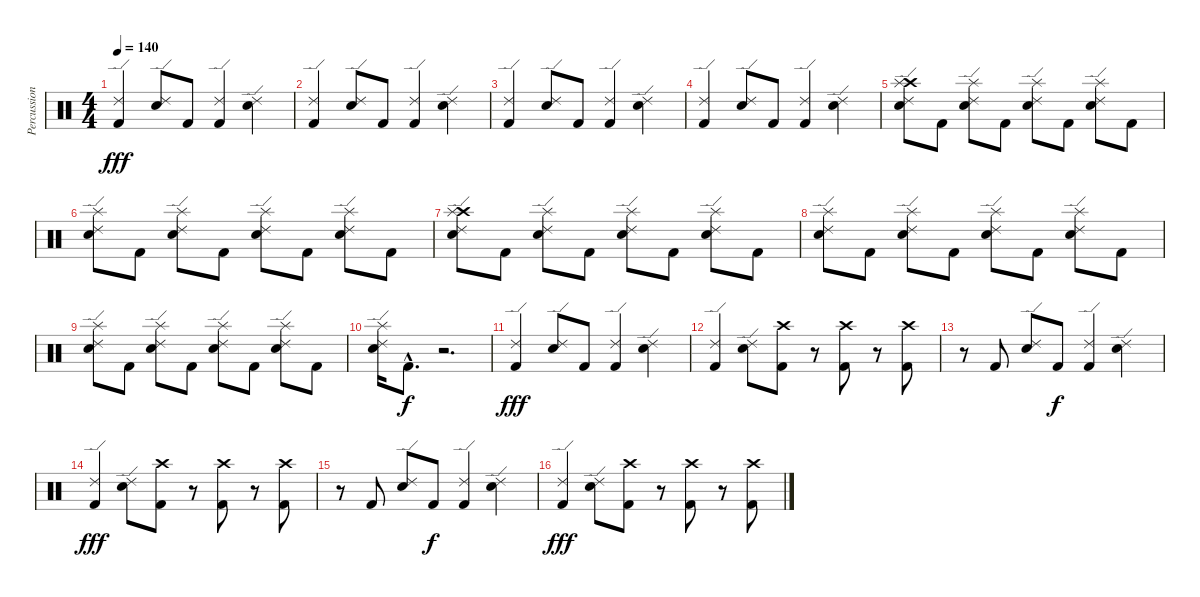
\track ("Percussion" "Percussion") {instrument percussion}
\staff {score}
\articulation defaults
\ts (4 4)
\tempo 140
\clef neutral
\ks c
("Ride (edge) 2" "Kick (hit) 2").4{dy fff} ("Ride (edge) 2" "Electric Snare (hit)").8 "Kick (hit) 2".8 ("Ride (edge) 2" "Kick (hit) 2").4 ("Ride (edge) 2" "Electric Snare (hit)").4 |
("Ride (edge) 2" "Kick (hit) 2").4 ("Ride (edge) 2" "Electric Snare (hit)").8 "Kick (hit) 2".8 ("Ride (edge) 2" "Kick (hit) 2").4 ("Ride (edge) 2" "Electric Snare (hit)").4 |
("Ride (edge) 2" "Kick (hit) 2").4 ("Ride (edge) 2" "Electric Snare (hit)").8 "Kick (hit) 2".8 ("Ride (edge) 2" "Kick (hit) 2").4 ("Ride (edge) 2" "Electric Snare (hit)").4 |
("Ride (edge) 2" "Kick (hit) 2").4 ("Ride (edge) 2" "Electric Snare (hit)").8 "Kick (hit) 2".8 ("Ride (edge) 2" "Kick (hit) 2").4 ("Ride (edge) 2" "Electric Snare (hit)").4 |
("Crash high (hit)" "Ride (edge) 2" "Electric Snare (hit)" "Splash (hit)").8 "Kick (hit) 2".8 ("Ride (edge) 2" "Electric Snare (hit)" "Splash (hit)").8 "Kick (hit) 2".8 ("Ride (edge) 2" "Electric Snare (hit)" "Splash (hit)").8 "Kick (hit) 2".8 ("Ride (edge) 2" "Electric Snare (hit)" "Splash (hit)").8 "Kick (hit) 2".8 |
("Ride (edge) 2" "Electric Snare (hit)" "Splash (hit)").8 "Kick (hit) 2".8 ("Ride (edge) 2" "Electric Snare (hit)" "Splash (hit)").8 "Kick (hit) 2".8 ("Ride (edge) 2" "Electric Snare (hit)" "Splash (hit)").8 "Kick (hit) 2".8 ("Ride (edge) 2" "Electric Snare (hit)" "Splash (hit)").8 "Kick (hit) 2".8 |
("Crash high (hit)" "Ride (edge) 2" "Electric Snare (hit)" "Splash (hit)").8 "Kick (hit) 2".8 ("Ride (edge) 2" "Electric Snare (hit)" "Splash (hit)").8 "Kick (hit) 2".8 ("Ride (edge) 2" "Electric Snare (hit)" "Splash (hit)").8 "Kick (hit) 2".8 ("Ride (edge) 2" "Electric Snare (hit)" "Splash (hit)").8 "Kick (hit) 2".8 |
("Ride (edge) 2" "Electric Snare (hit)" "Splash (hit)").8 "Kick (hit) 2".8 ("Ride (edge) 2" "Electric Snare (hit)" "Splash (hit)").8 "Kick (hit) 2".8 ("Ride (edge) 2" "Electric Snare (hit)" "Splash (hit)").8 "Kick (hit) 2".8 ("Ride (edge) 2" "Electric Snare (hit)" "Splash (hit)").8 "Kick (hit) 2".8 |
("Ride (edge) 2" "Electric Snare (hit)" "Splash (hit)").8 "Kick (hit) 2".8 ("Ride (edge) 2" "Electric Snare (hit)" "Splash (hit)").8 "Kick (hit) 2".8 ("Ride (edge) 2" "Electric Snare (hit)" "Splash (hit)").8 "Kick (hit) 2".8 ("Ride (edge) 2" "Electric Snare (hit)" "Splash (hit)").8 "Kick (hit) 2".8 |
("Ride (edge) 2" "Electric Snare (hit)" "Splash (hit)").16 "Kick (hit) 2"{hac}.8{d dy f} r.2{d} |
("Ride (edge) 2" "Kick (hit) 2").4{dy fff} ("Ride (edge) 2" "Electric Snare (hit)").8 "Kick (hit) 2".8 ("Ride (edge) 2" "Kick (hit) 2").4 ("Ride (edge) 2" "Electric Snare (hit)").4 |
("Ride (edge) 2" "Kick (hit) 2").4 ("Ride (edge) 2" "Electric Snare (hit)").8 ("Crash high (hit)" "Kick (hit) 2").8 r.8 ("Crash high (hit)" "Kick (hit) 2").8 r.8 ("Crash high (hit)" "Kick (hit) 2").8 |
r.8 "Kick (hit) 2".8 ("Ride (edge) 2" "Electric Snare (hit)").8 "Kick (hit) 2".8{dy f} ("Ride (edge) 2" "Kick (hit) 2").4 ("Ride (edge) 2" "Electric Snare (hit)").4 |
("Ride (edge) 2" "Kick (hit) 2").4{dy fff} ("Ride (edge) 2" "Electric Snare (hit)").8 ("Crash high (hit)" "Kick (hit) 2").8 r.8 ("Crash high (hit)" "Kick (hit) 2").8 r.8 ("Crash high (hit)" "Kick (hit) 2").8 |
r.8 "Kick (hit) 2".8 ("Ride (edge) 2" "Electric Snare (hit)").8 "Kick (hit) 2".8{dy f} ("Ride (edge) 2" "Kick (hit) 2").4 ("Ride (edge) 2" "Electric Snare (hit)").4 |
("Ride (edge) 2" "Kick (hit) 2").4{dy fff} ("Ride (edge) 2" "Electric Snare (hit)").8 ("Crash high (hit)" "Kick (hit) 2").8 r.8 ("Crash high (hit)" "Kick (hit) 2").8 r.8 ("Crash high (hit)" "Kick (hit) 2").8
